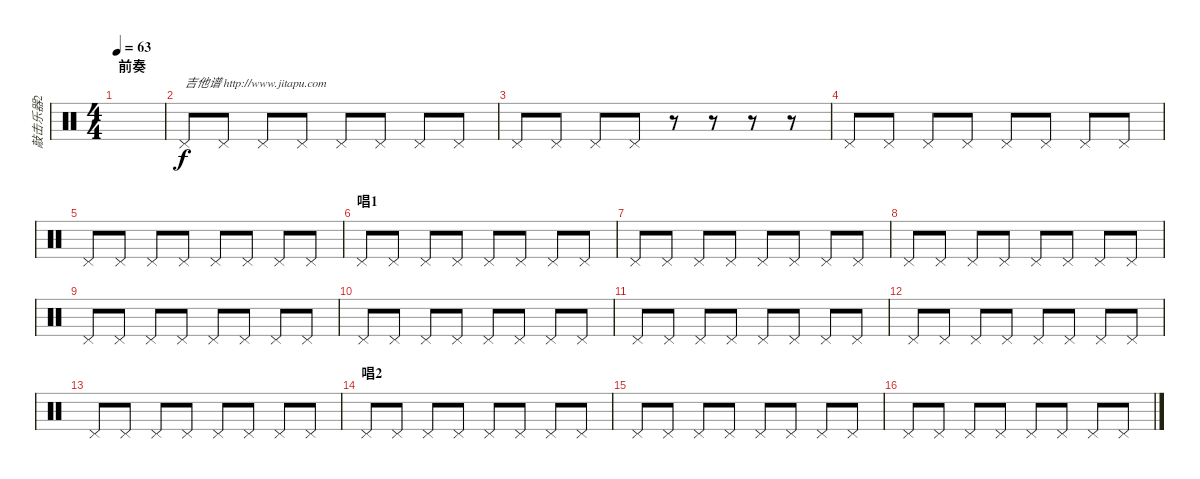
\track ("敲击乐器2" "敲击乐器2") {instrument percussion}
\staff {score}
\articulation defaults
\ts (4 4)
\section ("" "前奏")
\tempo 63
\clef neutral
\ks c
|
"Pedal Hi-Hat (hit)".8{txt "吉他谱 http://www.jitapu.com"} "Pedal Hi-Hat (hit)".8 "Pedal Hi-Hat (hit)".8 "Pedal Hi-Hat (hit)".8 "Pedal Hi-Hat (hit)".8 "Pedal Hi-Hat (hit)".8 "Pedal Hi-Hat (hit)".8 "Pedal Hi-Hat (hit)".8 |
"Pedal Hi-Hat (hit)".8 "Pedal Hi-Hat (hit)".8 "Pedal Hi-Hat (hit)".8 "Pedal Hi-Hat (hit)".8 r.8 r.8 r.8 r.8 |
"Pedal Hi-Hat (hit)".8 "Pedal Hi-Hat (hit)".8 "Pedal Hi-Hat (hit)".8 "Pedal Hi-Hat (hit)".8 "Pedal Hi-Hat (hit)".8 "Pedal Hi-Hat (hit)".8 "Pedal Hi-Hat (hit)".8 "Pedal Hi-Hat (hit)".8 |
"Pedal Hi-Hat (hit)".8 "Pedal Hi-Hat (hit)".8 "Pedal Hi-Hat (hit)".8 "Pedal Hi-Hat (hit)".8 "Pedal Hi-Hat (hit)".8 "Pedal Hi-Hat (hit)".8 "Pedal Hi-Hat (hit)".8 "Pedal Hi-Hat (hit)".8 |
\section ("" "唱1")
"Pedal Hi-Hat (hit)".8 "Pedal Hi-Hat (hit)".8 "Pedal Hi-Hat (hit)".8 "Pedal Hi-Hat (hit)".8 "Pedal Hi-Hat (hit)".8 "Pedal Hi-Hat (hit)".8 "Pedal Hi-Hat (hit)".8 "Pedal Hi-Hat (hit)".8 |
"Pedal Hi-Hat (hit)".8 "Pedal Hi-Hat (hit)".8 "Pedal Hi-Hat (hit)".8 "Pedal Hi-Hat (hit)".8 "Pedal Hi-Hat (hit)".8 "Pedal Hi-Hat (hit)".8 "Pedal Hi-Hat (hit)".8 "Pedal Hi-Hat (hit)".8 |
"Pedal Hi-Hat (hit)".8 "Pedal Hi-Hat (hit)".8 "Pedal Hi-Hat (hit)".8 "Pedal Hi-Hat (hit)".8 "Pedal Hi-Hat (hit)".8 "Pedal Hi-Hat (hit)".8 "Pedal Hi-Hat (hit)".8 "Pedal Hi-Hat (hit)".8 |
"Pedal Hi-Hat (hit)".8 "Pedal Hi-Hat (hit)".8 "Pedal Hi-Hat (hit)".8 "Pedal Hi-Hat (hit)".8 "Pedal Hi-Hat (hit)".8 "Pedal Hi-Hat (hit)".8 "Pedal Hi-Hat (hit)".8 "Pedal Hi-Hat (hit)".8 |
"Pedal Hi-Hat (hit)".8 "Pedal Hi-Hat (hit)".8 "Pedal Hi-Hat (hit)".8 "Pedal Hi-Hat (hit)".8 "Pedal Hi-Hat (hit)".8 "Pedal Hi-Hat (hit)".8 "Pedal Hi-Hat (hit)".8 "Pedal Hi-Hat (hit)".8 |
"Pedal Hi-Hat (hit)".8 "Pedal Hi-Hat (hit)".8 "Pedal Hi-Hat (hit)".8 "Pedal Hi-Hat (hit)".8 "Pedal Hi-Hat (hit)".8 "Pedal Hi-Hat (hit)".8 "Pedal Hi-Hat (hit)".8 "Pedal Hi-Hat (hit)".8 |
"Pedal Hi-Hat (hit)".8 "Pedal Hi-Hat (hit)".8 "Pedal Hi-Hat (hit)".8 "Pedal Hi-Hat (hit)".8 "Pedal Hi-Hat (hit)".8 "Pedal Hi-Hat (hit)".8 "Pedal Hi-Hat (hit)".8 "Pedal Hi-Hat (hit)".8 |
"Pedal Hi-Hat (hit)".8 "Pedal Hi-Hat (hit)".8 "Pedal Hi-Hat (hit)".8 "Pedal Hi-Hat (hit)".8 "Pedal Hi-Hat (hit)".8 "Pedal Hi-Hat (hit)".8 "Pedal Hi-Hat (hit)".8 "Pedal Hi-Hat (hit)".8 |
\section ("" "唱2")
"Pedal Hi-Hat (hit)".8 "Pedal Hi-Hat (hit)".8 "Pedal Hi-Hat (hit)".8 "Pedal Hi-Hat (hit)".8 "Pedal Hi-Hat (hit)".8 "Pedal Hi-Hat (hit)".8 "Pedal Hi-Hat (hit)".8 "Pedal Hi-Hat (hit)".8 |
"Pedal Hi-Hat (hit)".8 "Pedal Hi-Hat (hit)".8 "Pedal Hi-Hat (hit)".8 "Pedal Hi-Hat (hit)".8 "Pedal Hi-Hat (hit)".8 "Pedal Hi-Hat (hit)".8 "Pedal Hi-Hat (hit)".8 "Pedal Hi-Hat (hit)".8 |
"Pedal Hi-Hat (hit)".8 "Pedal Hi-Hat (hit)".8 "Pedal Hi-Hat (hit)".8 "Pedal Hi-Hat (hit)".8 "Pedal Hi-Hat (hit)".8 "Pedal Hi-Hat (hit)".8 "Pedal Hi-Hat (hit)".8 "Pedal Hi-Hat (hit)".8
